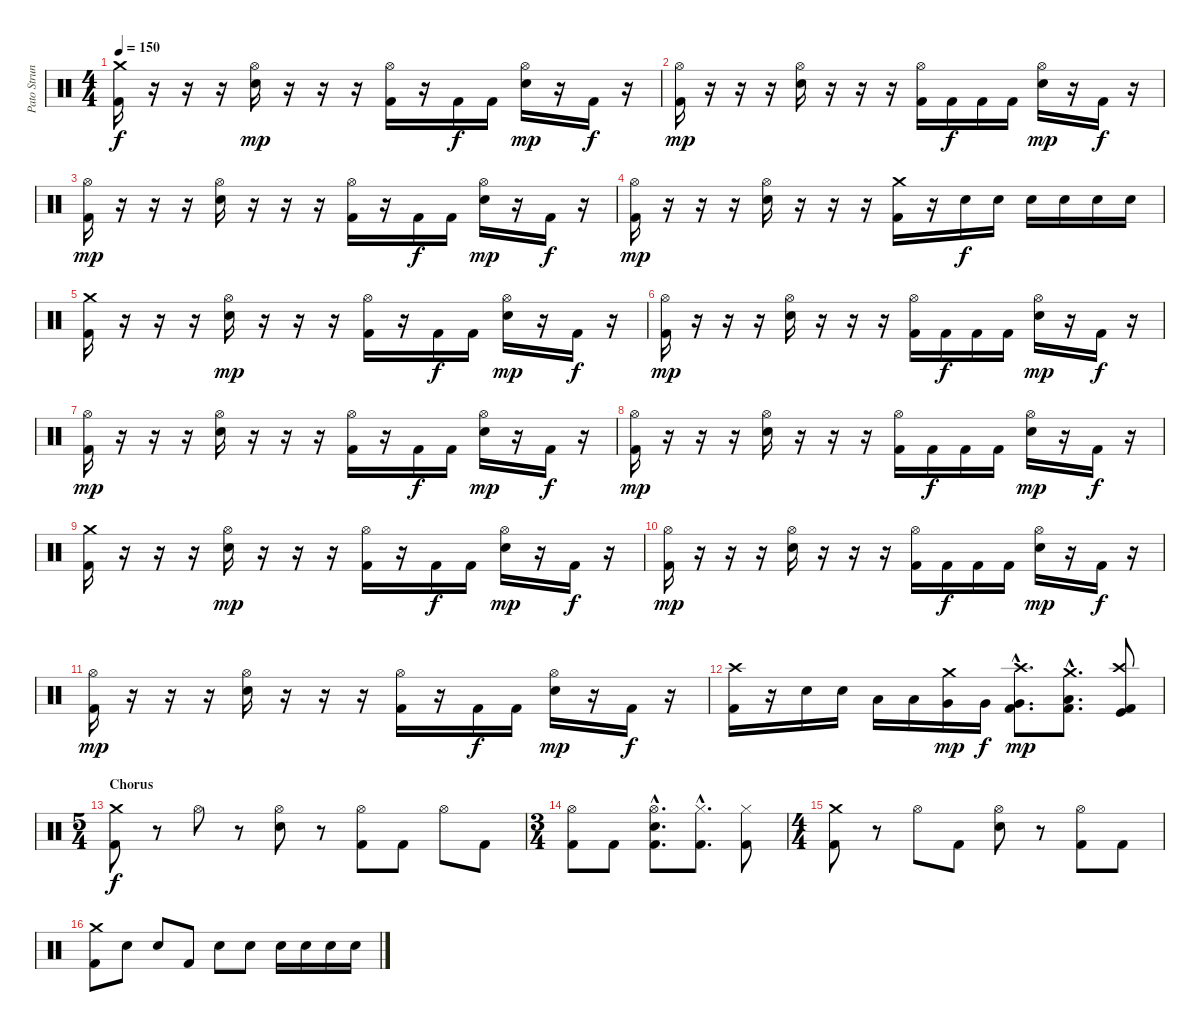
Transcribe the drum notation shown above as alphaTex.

\track ("Pato Strunz" "Pato Strun") {instrument percussion}
\staff {score}
\articulation defaults
\ts (4 4)
\tempo 150
\clef neutral
\ks c
("Crash medium (hit)" "Kick (hit) 2").16{dy f} r.16 r.16 r.16 ("Hi-Hat (open)" "Electric Snare (hit)").16{dy mp} r.16 r.16 r.16 ("Hi-Hat (open)" "Kick (hit) 2").16 r.16 "Kick (hit) 2".16{dy f} "Kick (hit) 2".16 ("Hi-Hat (open)" "Electric Snare (hit)").16{dy mp} r.16 "Kick (hit) 2".16{dy f} r.16 |
("Hi-Hat (open)" "Kick (hit) 2").16{dy mp} r.16 r.16 r.16 ("Hi-Hat (open)" "Electric Snare (hit)").16 r.16 r.16 r.16 ("Hi-Hat (open)" "Kick (hit) 2").16 "Kick (hit) 2".16{dy f} "Kick (hit) 2".16 "Kick (hit) 2".16 ("Hi-Hat (open)" "Electric Snare (hit)").16{dy mp} r.16 "Kick (hit) 2".16{dy f} r.16 |
("Hi-Hat (open)" "Kick (hit) 2").16{dy mp} r.16 r.16 r.16 ("Hi-Hat (open)" "Electric Snare (hit)").16 r.16 r.16 r.16 ("Hi-Hat (open)" "Kick (hit) 2").16 r.16 "Kick (hit) 2".16{dy f} "Kick (hit) 2".16 ("Hi-Hat (open)" "Electric Snare (hit)").16{dy mp} r.16 "Kick (hit) 2".16{dy f} r.16 |
("Hi-Hat (open)" "Kick (hit) 2").16{dy mp} r.16 r.16 r.16 ("Hi-Hat (open)" "Electric Snare (hit)").16 r.16 r.16 r.16 ("Crash medium (hit)" "Kick (hit) 2").16 r.16 "Electric Snare (hit)".16{dy f} "Electric Snare (hit)".16 "Electric Snare (hit)".16 "Electric Snare (hit)".16 "Electric Snare (hit)".16 "Electric Snare (hit)".16 |
("Crash medium (hit)" "Kick (hit) 2").16 r.16 r.16 r.16 ("Hi-Hat (open)" "Electric Snare (hit)").16{dy mp} r.16 r.16 r.16 ("Hi-Hat (open)" "Kick (hit) 2").16 r.16 "Kick (hit) 2".16{dy f} "Kick (hit) 2".16 ("Hi-Hat (open)" "Electric Snare (hit)").16{dy mp} r.16 "Kick (hit) 2".16{dy f} r.16 |
("Hi-Hat (open)" "Kick (hit) 2").16{dy mp} r.16 r.16 r.16 ("Hi-Hat (open)" "Electric Snare (hit)").16 r.16 r.16 r.16 ("Hi-Hat (open)" "Kick (hit) 2").16 "Kick (hit) 2".16{dy f} "Kick (hit) 2".16 "Kick (hit) 2".16 ("Hi-Hat (open)" "Electric Snare (hit)").16{dy mp} r.16 "Kick (hit) 2".16{dy f} r.16 |
("Hi-Hat (open)" "Kick (hit) 2").16{dy mp} r.16 r.16 r.16 ("Hi-Hat (open)" "Electric Snare (hit)").16 r.16 r.16 r.16 ("Hi-Hat (open)" "Kick (hit) 2").16 r.16 "Kick (hit) 2".16{dy f} "Kick (hit) 2".16 ("Hi-Hat (open)" "Electric Snare (hit)").16{dy mp} r.16 "Kick (hit) 2".16{dy f} r.16 |
("Hi-Hat (open)" "Kick (hit) 2").16{dy mp} r.16 r.16 r.16 ("Hi-Hat (open)" "Electric Snare (hit)").16 r.16 r.16 r.16 ("Hi-Hat (open)" "Kick (hit) 2").16 "Kick (hit) 2".16{dy f} "Kick (hit) 2".16 "Kick (hit) 2".16 ("Hi-Hat (open)" "Electric Snare (hit)").16{dy mp} r.16 "Kick (hit) 2".16{dy f} r.16 |
("Crash medium (hit)" "Kick (hit) 2").16 r.16 r.16 r.16 ("Hi-Hat (open)" "Electric Snare (hit)").16{dy mp} r.16 r.16 r.16 ("Hi-Hat (open)" "Kick (hit) 2").16 r.16 "Kick (hit) 2".16{dy f} "Kick (hit) 2".16 ("Hi-Hat (open)" "Electric Snare (hit)").16{dy mp} r.16 "Kick (hit) 2".16{dy f} r.16 |
("Hi-Hat (open)" "Kick (hit) 2").16{dy mp} r.16 r.16 r.16 ("Hi-Hat (open)" "Electric Snare (hit)").16 r.16 r.16 r.16 ("Hi-Hat (open)" "Kick (hit) 2").16 "Kick (hit) 2".16{dy f} "Kick (hit) 2".16 "Kick (hit) 2".16 ("Hi-Hat (open)" "Electric Snare (hit)").16{dy mp} r.16 "Kick (hit) 2".16{dy f} r.16 |
("Hi-Hat (open)" "Kick (hit) 2").16{dy mp} r.16 r.16 r.16 ("Hi-Hat (open)" "Electric Snare (hit)").16 r.16 r.16 r.16 ("Hi-Hat (open)" "Kick (hit) 2").16 r.16 "Kick (hit) 2".16{dy f} "Kick (hit) 2".16 ("Hi-Hat (open)" "Electric Snare (hit)").16{dy mp} r.16 "Kick (hit) 2".16{dy f} r.16 |
("Crash high (hit)" "Kick (hit) 2").16 r.16 "Electric Snare (hit)".16 "Electric Snare (hit)".16 "Low Tom (hit)".16 "Low Tom (hit)".16 ("Crash medium (hit)" "Very Low Tom (hit)").16{dy mp} "Very Low Tom (hit)".16{dy f} ("Crash high (hit)"{hac} "Very Low Tom (hit)"{hac} "Kick (hit) 2"{hac}).8{d dy mp} ("Crash medium (hit)"{hac} "Low Floor Tom (hit)"{hac} "Kick (hit) 2"{hac}).8{d} ("Crash high (hit)" "Kick (hit)" "Kick (hit) 2").8 |
\ts (5 4)
\section ("" "Chorus")
("Crash medium (hit)" "Kick (hit) 2").8{dy f} r.8 "Hi-Hat (open)".8 r.8 ("Hi-Hat (open)" "Electric Snare (hit)").8 r.8 ("Hi-Hat (open)" "Kick (hit) 2").8 "Kick (hit) 2".8 "Hi-Hat (open)".8 "Kick (hit) 2".8 |
\ts (3 4)
("Hi-Hat (open)" "Kick (hit) 2").8 "Kick (hit) 2".8 ("Hi-Hat (open)"{hac} "Electric Snare (hit)"{hac} "Kick (hit) 2"{hac}).8{d} ("Hi-Hat (closed)"{hac} "Kick (hit) 2"{hac}).8{d} ("Hi-Hat (closed)" "Kick (hit) 2").8 |
\ts (4 4)
("Crash medium (hit)" "Kick (hit) 2").8 r.8 "Hi-Hat (open)".8 "Kick (hit) 2".8 ("Hi-Hat (open)" "Electric Snare (hit)").8 r.8 ("Hi-Hat (open)" "Kick (hit) 2").8 "Kick (hit) 2".8 |
("Crash medium (hit)" "Kick (hit) 2").8 "Electric Snare (hit)".8 "Electric Snare (hit)".8 "Kick (hit) 2".8 "Electric Snare (hit)".8 "Electric Snare (hit)".8 "Electric Snare (hit)".16 "Electric Snare (hit)".16 "Electric Snare (hit)".16 "Electric Snare (hit)".16
